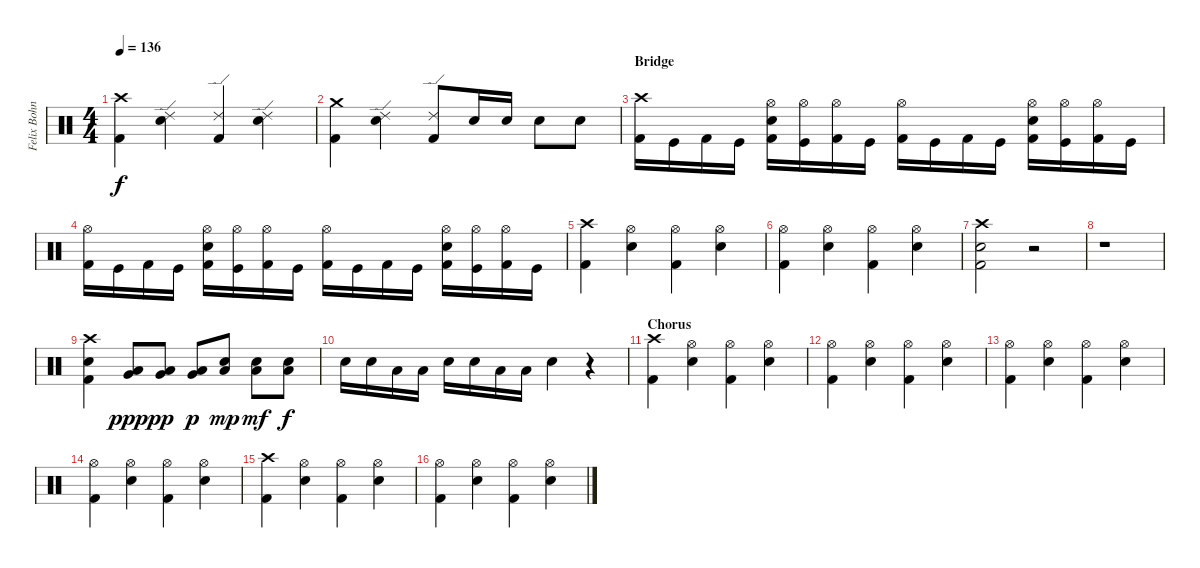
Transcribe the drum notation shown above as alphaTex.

\track ("Felix Bohnke" "Felix Bohn") {instrument percussion}
\staff {score}
\articulation defaults
\ts (4 4)
\tempo 136
\clef neutral
\ks c
("Crash high (hit)" "Kick (hit) 2").4{dy f} ("Ride (edge) 2" "Snare (hit) 2").4 ("Ride (edge) 2" "Kick (hit) 2").4 ("Ride (edge) 2" "Snare (hit) 2").4 |
("Crash medium (hit)" "Kick (hit) 2").4 ("Ride (edge) 2" "Snare (hit) 2").4 ("Ride (edge) 2" "Kick (hit) 2").8 "Snare (hit) 2".16 "Snare (hit) 2".16 "Snare (hit) 2".8 "Snare (hit) 2".8 |
\section ("" "Bridge")
("Crash high (hit)" "Kick (hit) 2").16 "Kick (hit)".16 "Kick (hit) 2".16 "Kick (hit)".16 ("Hi-Hat (open)" "Snare (hit) 2" "Kick (hit) 2").16 ("Hi-Hat (open)" "Kick (hit)").16 ("Hi-Hat (open)" "Kick (hit) 2").16 "Kick (hit)".16 ("Hi-Hat (open)" "Kick (hit) 2").16 "Kick (hit)".16 "Kick (hit) 2".16 "Kick (hit)".16 ("Hi-Hat (open)" "Snare (hit) 2" "Kick (hit) 2").16 ("Hi-Hat (open)" "Kick (hit)").16 ("Hi-Hat (open)" "Kick (hit) 2").16 "Kick (hit)".16 |
("Hi-Hat (open)" "Kick (hit) 2").16 "Kick (hit)".16 "Kick (hit) 2".16 "Kick (hit)".16 ("Hi-Hat (open)" "Snare (hit) 2" "Kick (hit) 2").16 ("Hi-Hat (open)" "Kick (hit)").16 ("Hi-Hat (open)" "Kick (hit) 2").16 "Kick (hit)".16 ("Hi-Hat (open)" "Kick (hit) 2").16 "Kick (hit)".16 "Kick (hit) 2".16 "Kick (hit)".16 ("Hi-Hat (open)" "Snare (hit) 2" "Kick (hit) 2").16 ("Hi-Hat (open)" "Kick (hit)").16 ("Hi-Hat (open)" "Kick (hit) 2").16 "Kick (hit)".16 |
("Crash high (hit)" "Kick (hit) 2").4 ("Hi-Hat (open)" "Snare (hit) 2").4 ("Hi-Hat (open)" "Kick (hit) 2").4 ("Hi-Hat (open)" "Snare (hit) 2").4 |
("Hi-Hat (open)" "Kick (hit) 2").4 ("Hi-Hat (open)" "Snare (hit) 2").4 ("Hi-Hat (open)" "Kick (hit) 2").4 ("Hi-Hat (open)" "Snare (hit) 2").4 |
("Crash high (hit)" "Snare (hit) 2" "Kick (hit) 2").2 r.2 |
r.1 |
("Crash high (hit)" "Snare (hit) 2" "Kick (hit) 2").4 ("Very Low Tom (hit)" "Low Tom (hit)").8{dy ppp} ("Very Low Tom (hit)" "Low Tom (hit)").8{dy pp} ("Very Low Tom (hit)" "Low Tom (hit)").8{dy p} ("Snare (hit) 2" "Low Tom (hit)").8{dy mp} ("Snare (hit) 2" "Low Tom (hit)").8{dy mf} ("Snare (hit) 2" "Low Tom (hit)").8{dy f} |
"Snare (hit) 2".16 "Snare (hit) 2".16 "Low Tom (hit)".16 "Low Tom (hit)".16 "Snare (hit) 2".16 "Snare (hit) 2".16 "Low Tom (hit)".16 "Low Tom (hit)".16 "Snare (hit) 2".4 r.4 |
\section ("" "Chorus")
("Crash high (hit)" "Kick (hit) 2").4 ("Hi-Hat (open)" "Snare (hit) 2").4 ("Hi-Hat (open)" "Kick (hit) 2").4 ("Hi-Hat (open)" "Snare (hit) 2").4 |
("Hi-Hat (open)" "Kick (hit) 2").4 ("Hi-Hat (open)" "Snare (hit) 2").4 ("Hi-Hat (open)" "Kick (hit) 2").4 ("Hi-Hat (open)" "Snare (hit) 2").4 |
("Hi-Hat (open)" "Kick (hit) 2").4 ("Hi-Hat (open)" "Snare (hit) 2").4 ("Hi-Hat (open)" "Kick (hit) 2").4 ("Hi-Hat (open)" "Snare (hit) 2").4 |
("Hi-Hat (open)" "Kick (hit) 2").4 ("Hi-Hat (open)" "Snare (hit) 2").4 ("Hi-Hat (open)" "Kick (hit) 2").4 ("Hi-Hat (open)" "Snare (hit) 2").4 |
("Crash high (hit)" "Kick (hit) 2").4 ("Hi-Hat (open)" "Snare (hit) 2").4 ("Hi-Hat (open)" "Kick (hit) 2").4 ("Hi-Hat (open)" "Snare (hit) 2").4 |
("Hi-Hat (open)" "Kick (hit) 2").4 ("Hi-Hat (open)" "Snare (hit) 2").4 ("Hi-Hat (open)" "Kick (hit) 2").4 ("Hi-Hat (open)" "Snare (hit) 2").4
